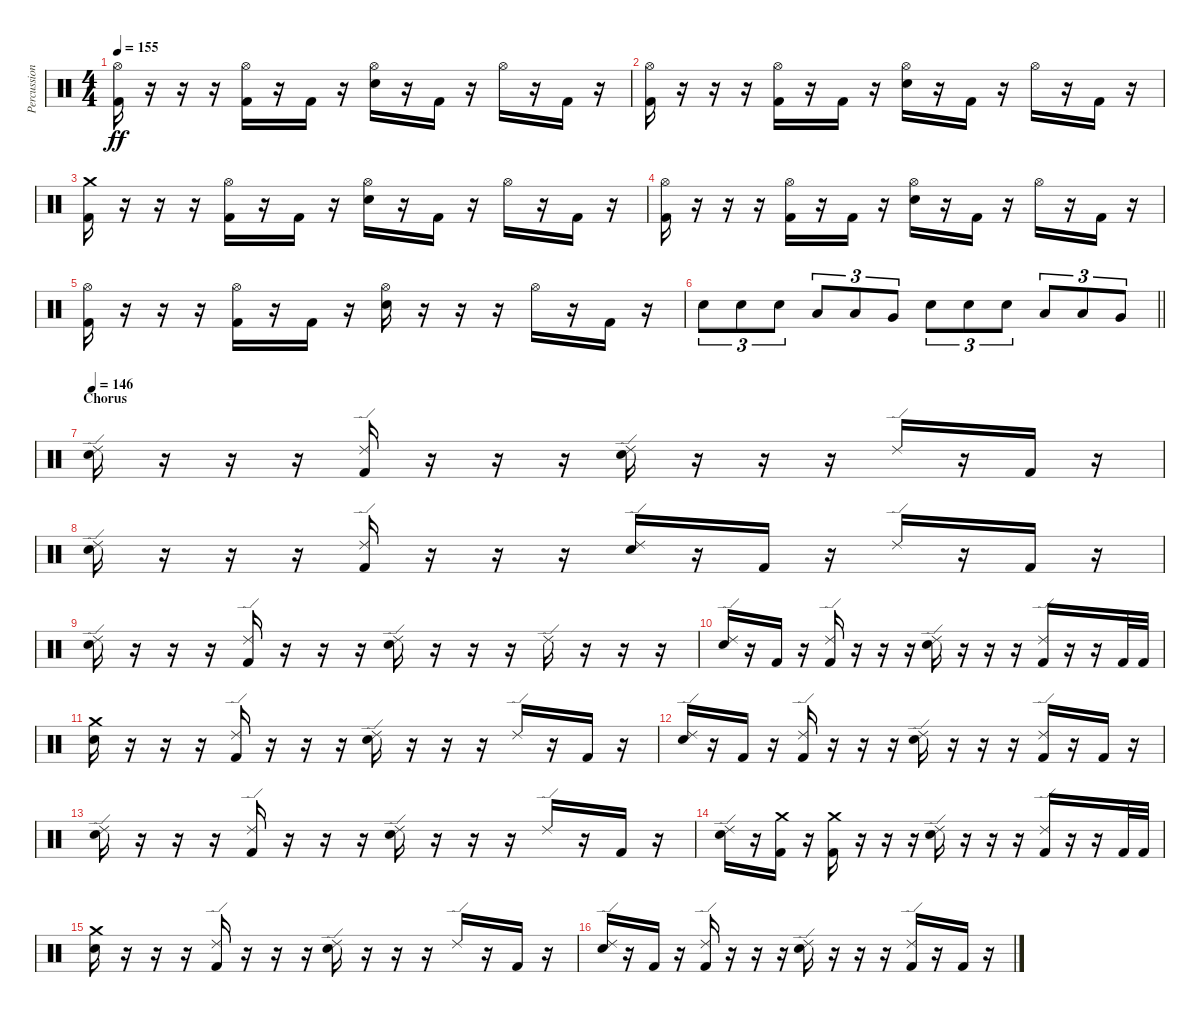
\track ("Percussion" "Percussion") {instrument percussion}
\staff {score}
\articulation defaults
\ts (4 4)
\tempo 155
\clef neutral
\ks c
("Hi-Hat (open)" "Kick (hit) 2").16{dy ff} r.16 r.16 r.16 ("Hi-Hat (open)" "Kick (hit) 2").16 r.16 "Kick (hit) 2".16 r.16 ("Hi-Hat (open)" "Electric Snare (hit)").16 r.16 "Kick (hit) 2".16 r.16 "Hi-Hat (open)".16 r.16 "Kick (hit) 2".16 r.16 |
("Hi-Hat (open)" "Kick (hit) 2").16 r.16 r.16 r.16 ("Hi-Hat (open)" "Kick (hit) 2").16 r.16 "Kick (hit) 2".16 r.16 ("Hi-Hat (open)" "Electric Snare (hit)").16 r.16 "Kick (hit) 2".16 r.16 "Hi-Hat (open)".16 r.16 "Kick (hit) 2".16 r.16 |
("Crash medium (hit)" "Kick (hit) 2").16 r.16 r.16 r.16 ("Hi-Hat (open)" "Kick (hit) 2").16 r.16 "Kick (hit) 2".16 r.16 ("Hi-Hat (open)" "Electric Snare (hit)").16 r.16 "Kick (hit) 2".16 r.16 "Hi-Hat (open)".16 r.16 "Kick (hit) 2".16 r.16 |
("Hi-Hat (open)" "Kick (hit) 2").16 r.16 r.16 r.16 ("Hi-Hat (open)" "Kick (hit) 2").16 r.16 "Kick (hit) 2".16 r.16 ("Hi-Hat (open)" "Electric Snare (hit)").16 r.16 "Kick (hit) 2".16 r.16 "Hi-Hat (open)".16 r.16 "Kick (hit) 2".16 r.16 |
("Hi-Hat (open)" "Kick (hit) 2").16 r.16 r.16 r.16 ("Hi-Hat (open)" "Kick (hit) 2").16 r.16 "Kick (hit) 2".16 r.16 ("Hi-Hat (open)" "Electric Snare (hit)").16 r.16 r.16 r.16 "Hi-Hat (open)".16 r.16 "Kick (hit) 2".16 r.16 |
\barLineRight lightlight "Electric Snare (hit)".8{tu (3 2)} "Electric Snare (hit)".8{tu (3 2)} "Electric Snare (hit)".8{tu (3 2)} "Low Tom (hit)".8{tu (3 2)} "Low Tom (hit)".8{tu (3 2)} "Very Low Tom (hit)".8{tu (3 2)} "Electric Snare (hit)".8{tu (3 2)} "Electric Snare (hit)".8{tu (3 2)} "Electric Snare (hit)".8{tu (3 2)} "Low Tom (hit)".8{tu (3 2)} "Low Tom (hit)".8{tu (3 2)} "Very Low Tom (hit)".8{tu (3 2)}
|
\section ("" "Chorus")
\tempo 146
("Ride (edge) 2" "Electric Snare (hit)").16 r.16 r.16 r.16 ("Ride (edge) 2" "Kick (hit) 2").16 r.16 r.16 r.16 ("Ride (edge) 2" "Electric Snare (hit)").16 r.16 r.16 r.16 "Ride (edge) 2".16 r.16 "Kick (hit) 2".16 r.16 |
("Ride (edge) 2" "Electric Snare (hit)").16 r.16 r.16 r.16 ("Ride (edge) 2" "Kick (hit) 2").16 r.16 r.16 r.16 ("Ride (edge) 2" "Electric Snare (hit)").16 r.16 "Kick (hit) 2".16 r.16 "Ride (edge) 2".16 r.16 "Kick (hit) 2".16 r.16 |
("Ride (edge) 2" "Electric Snare (hit)").16 r.16 r.16 r.16 ("Ride (edge) 2" "Kick (hit) 2").16 r.16 r.16 r.16 ("Ride (edge) 2" "Electric Snare (hit)").16 r.16 r.16 r.16 "Ride (edge) 2".16 r.16 r.16 r.16 |
("Ride (edge) 2" "Electric Snare (hit)").16 r.16 "Kick (hit) 2".16 r.16 ("Ride (edge) 2" "Kick (hit) 2").16 r.16 r.16 r.16 ("Ride (edge) 2" "Electric Snare (hit)").16 r.16 r.16 r.16 ("Ride (edge) 2" "Kick (hit) 2").16 r.16 r.16 "Kick (hit) 2".32 "Kick (hit) 2".32 |
("Crash medium (hit)" "Electric Snare (hit)").16 r.16 r.16 r.16 ("Ride (edge) 2" "Kick (hit) 2").16 r.16 r.16 r.16 ("Ride (edge) 2" "Electric Snare (hit)").16 r.16 r.16 r.16 "Ride (edge) 2".16 r.16 "Kick (hit) 2".16 r.16 |
("Ride (edge) 2" "Electric Snare (hit)").16 r.16 "Kick (hit) 2".16 r.16 ("Ride (edge) 2" "Kick (hit) 2").16 r.16 r.16 r.16 ("Ride (edge) 2" "Electric Snare (hit)").16 r.16 r.16 r.16 ("Ride (edge) 2" "Kick (hit) 2").16 r.16 "Kick (hit) 2".16 r.16 |
("Ride (edge) 2" "Electric Snare (hit)").16 r.16 r.16 r.16 ("Ride (edge) 2" "Kick (hit) 2").16 r.16 r.16 r.16 ("Ride (edge) 2" "Electric Snare (hit)").16 r.16 r.16 r.16 "Ride (edge) 2".16 r.16 "Kick (hit) 2".16 r.16 |
("Ride (edge) 2" "Electric Snare (hit)").16 r.16 ("Crash medium (hit)" "Kick (hit) 2").16 r.16 ("Crash medium (hit)" "Kick (hit) 2").16 r.16 r.16 r.16 ("Ride (edge) 2" "Electric Snare (hit)").16 r.16 r.16 r.16 ("Ride (edge) 2" "Kick (hit) 2").16 r.16 r.16 "Kick (hit) 2".32 "Kick (hit) 2".32 |
("Crash medium (hit)" "Electric Snare (hit)").16 r.16 r.16 r.16 ("Ride (edge) 2" "Kick (hit) 2").16 r.16 r.16 r.16 ("Ride (edge) 2" "Electric Snare (hit)").16 r.16 r.16 r.16 "Ride (edge) 2".16 r.16 "Kick (hit) 2".16 r.16 |
("Ride (edge) 2" "Electric Snare (hit)").16 r.16 "Kick (hit) 2".16 r.16 ("Ride (edge) 2" "Kick (hit) 2").16 r.16 r.16 r.16 ("Ride (edge) 2" "Electric Snare (hit)").16 r.16 r.16 r.16 ("Ride (edge) 2" "Kick (hit) 2").16 r.16 "Kick (hit) 2".16 r.16
